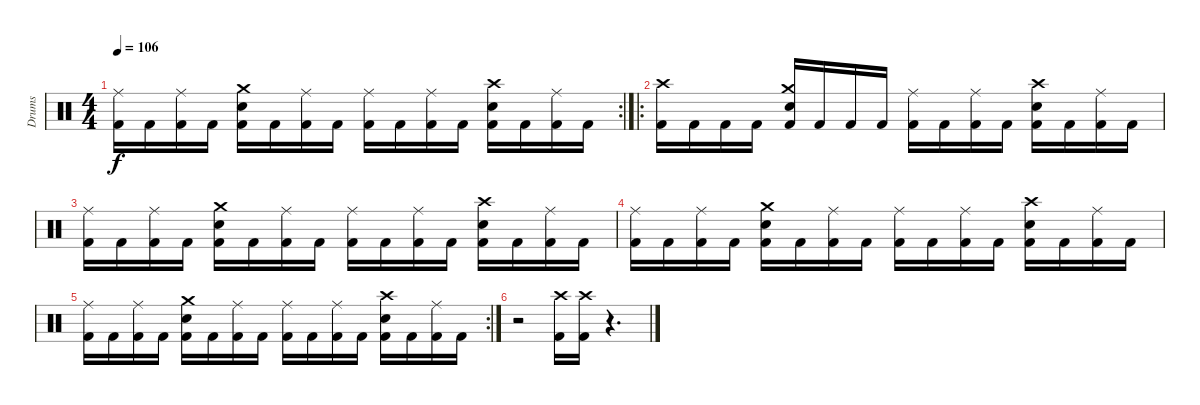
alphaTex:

\track ("Drums" "Drums") {instrument percussion}
\staff {score}
\articulation defaults
\rc 2
\ts (4 4)
\tempo 106
\clef neutral
\ks c
("Ride (middle)" "Kick (hit) 2").16{dy f} "Kick (hit) 2".16 ("Ride (middle)" "Kick (hit) 2").16 "Kick (hit) 2".16 ("Crash medium (hit)" "Electric Snare (hit)" "Kick (hit) 2").16 "Kick (hit) 2".16 ("Ride (middle)" "Kick (hit) 2").16 "Kick (hit) 2".16 ("Ride (middle)" "Kick (hit) 2").16 "Kick (hit) 2".16 ("Ride (middle)" "Kick (hit) 2").16 "Kick (hit) 2".16 ("Crash high (hit)" "Electric Snare (hit)" "Kick (hit) 2").16 "Kick (hit) 2".16 ("Ride (middle)" "Kick (hit) 2").16 "Kick (hit) 2".16 |
\ro
("Crash high (hit)" "Kick (hit) 2").16 "Kick (hit) 2".16 "Kick (hit) 2".16 "Kick (hit) 2".16 ("Crash medium (hit)" "Electric Snare (hit)" "Kick (hit) 2").16 "Kick (hit) 2".16 "Kick (hit) 2".16 "Kick (hit) 2".16 ("Ride (middle)" "Kick (hit) 2").16 "Kick (hit) 2".16 ("Ride (middle)" "Kick (hit) 2").16 "Kick (hit) 2".16 ("Crash high (hit)" "Electric Snare (hit)" "Kick (hit) 2").16 "Kick (hit) 2".16 ("Ride (middle)" "Kick (hit) 2").16 "Kick (hit) 2".16 |
("Ride (middle)" "Kick (hit) 2").16 "Kick (hit) 2".16 ("Ride (middle)" "Kick (hit) 2").16 "Kick (hit) 2".16 ("Crash medium (hit)" "Electric Snare (hit)" "Kick (hit) 2").16 "Kick (hit) 2".16 ("Ride (middle)" "Kick (hit) 2").16 "Kick (hit) 2".16 ("Ride (middle)" "Kick (hit) 2").16 "Kick (hit) 2".16 ("Ride (middle)" "Kick (hit) 2").16 "Kick (hit) 2".16 ("Crash high (hit)" "Electric Snare (hit)" "Kick (hit) 2").16 "Kick (hit) 2".16 ("Ride (middle)" "Kick (hit) 2").16 "Kick (hit) 2".16 |
("Ride (middle)" "Kick (hit) 2").16 "Kick (hit) 2".16 ("Ride (middle)" "Kick (hit) 2").16 "Kick (hit) 2".16 ("Crash medium (hit)" "Electric Snare (hit)" "Kick (hit) 2").16 "Kick (hit) 2".16 ("Ride (middle)" "Kick (hit) 2").16 "Kick (hit) 2".16 ("Ride (middle)" "Kick (hit) 2").16 "Kick (hit) 2".16 ("Ride (middle)" "Kick (hit) 2").16 "Kick (hit) 2".16 ("Crash high (hit)" "Electric Snare (hit)" "Kick (hit) 2").16 "Kick (hit) 2".16 ("Ride (middle)" "Kick (hit) 2").16 "Kick (hit) 2".16 |
\rc 2
("Ride (middle)" "Kick (hit) 2").16 "Kick (hit) 2".16 ("Ride (middle)" "Kick (hit) 2").16 "Kick (hit) 2".16 ("Crash medium (hit)" "Electric Snare (hit)" "Kick (hit) 2").16 "Kick (hit) 2".16 ("Ride (middle)" "Kick (hit) 2").16 "Kick (hit) 2".16 ("Ride (middle)" "Kick (hit) 2").16 "Kick (hit) 2".16 ("Ride (middle)" "Kick (hit) 2").16 "Kick (hit) 2".16 ("Crash high (hit)" "Electric Snare (hit)" "Kick (hit) 2").16 "Kick (hit) 2".16 ("Ride (middle)" "Kick (hit) 2").16 "Kick (hit) 2".16 |
r.2 ("Crash high (hit)" "Kick (hit) 2").16 ("Crash high (hit)" "Kick (hit) 2").16 r.4{d}
